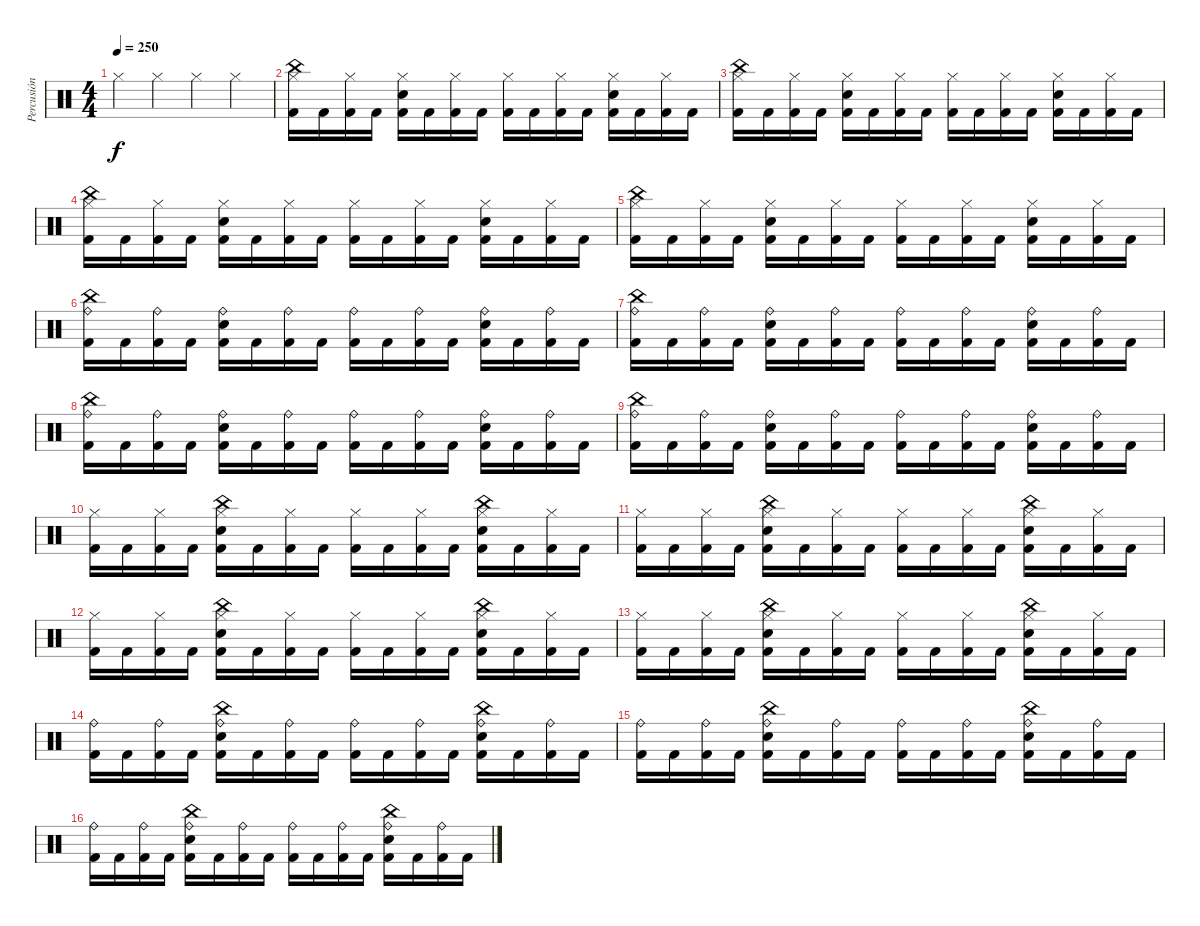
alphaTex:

\track ("Percusión" "Percusión") {instrument percussion}
\staff {score}
\articulation defaults
\ts (4 4)
\tempo 250
\clef neutral
\ks c "Hi-Hat (closed)".4{dy f} "Hi-Hat (closed)".4 "Hi-Hat (closed)".4 "Hi-Hat (closed)".4
|
("Hi-Hat (closed)" "China (hit)" "Kick (hit) 2").16 "Kick (hit) 2".16 ("Hi-Hat (closed)" "Kick (hit) 2").16 "Kick (hit) 2".16 ("Hi-Hat (closed)" "Electric Snare (hit)" "Kick (hit) 2").16 "Kick (hit) 2".16 ("Hi-Hat (closed)" "Kick (hit) 2").16 "Kick (hit) 2".16 ("Hi-Hat (closed)" "Kick (hit) 2").16 "Kick (hit) 2".16 ("Hi-Hat (closed)" "Kick (hit) 2").16 "Kick (hit) 2".16 ("Hi-Hat (closed)" "Electric Snare (hit)" "Kick (hit) 2").16 "Kick (hit) 2".16 ("Hi-Hat (closed)" "Kick (hit) 2").16 "Kick (hit) 2".16 |
("Hi-Hat (closed)" "China (hit)" "Kick (hit) 2").16 "Kick (hit) 2".16 ("Hi-Hat (closed)" "Kick (hit) 2").16 "Kick (hit) 2".16 ("Hi-Hat (closed)" "Electric Snare (hit)" "Kick (hit) 2").16 "Kick (hit) 2".16 ("Hi-Hat (closed)" "Kick (hit) 2").16 "Kick (hit) 2".16 ("Hi-Hat (closed)" "Kick (hit) 2").16 "Kick (hit) 2".16 ("Hi-Hat (closed)" "Kick (hit) 2").16 "Kick (hit) 2".16 ("Hi-Hat (closed)" "Electric Snare (hit)" "Kick (hit) 2").16 "Kick (hit) 2".16 ("Hi-Hat (closed)" "Kick (hit) 2").16 "Kick (hit) 2".16 |
("Hi-Hat (closed)" "China (hit)" "Kick (hit) 2").16 "Kick (hit) 2".16 ("Hi-Hat (closed)" "Kick (hit) 2").16 "Kick (hit) 2".16 ("Hi-Hat (closed)" "Electric Snare (hit)" "Kick (hit) 2").16 "Kick (hit) 2".16 ("Hi-Hat (closed)" "Kick (hit) 2").16 "Kick (hit) 2".16 ("Hi-Hat (closed)" "Kick (hit) 2").16 "Kick (hit) 2".16 ("Hi-Hat (closed)" "Kick (hit) 2").16 "Kick (hit) 2".16 ("Hi-Hat (closed)" "Electric Snare (hit)" "Kick (hit) 2").16 "Kick (hit) 2".16 ("Hi-Hat (closed)" "Kick (hit) 2").16 "Kick (hit) 2".16 |
("Hi-Hat (closed)" "China (hit)" "Kick (hit) 2").16 "Kick (hit) 2".16 ("Hi-Hat (closed)" "Kick (hit) 2").16 "Kick (hit) 2".16 ("Hi-Hat (closed)" "Electric Snare (hit)" "Kick (hit) 2").16 "Kick (hit) 2".16 ("Hi-Hat (closed)" "Kick (hit) 2").16 "Kick (hit) 2".16 ("Hi-Hat (closed)" "Kick (hit) 2").16 "Kick (hit) 2".16 ("Hi-Hat (closed)" "Kick (hit) 2").16 "Kick (hit) 2".16 ("Hi-Hat (closed)" "Electric Snare (hit)" "Kick (hit) 2").16 "Kick (hit) 2".16 ("Hi-Hat (closed)" "Kick (hit) 2").16 "Kick (hit) 2".16 |
("Ride (bell)" "China (hit)" "Kick (hit) 2").16 "Kick (hit) 2".16 ("Ride (bell)" "Kick (hit) 2").16 "Kick (hit) 2".16 ("Ride (bell)" "Electric Snare (hit)" "Kick (hit) 2").16 "Kick (hit) 2".16 ("Ride (bell)" "Kick (hit) 2").16 "Kick (hit) 2".16 ("Ride (bell)" "Kick (hit) 2").16 "Kick (hit) 2".16 ("Ride (bell)" "Kick (hit) 2").16 "Kick (hit) 2".16 ("Ride (bell)" "Electric Snare (hit)" "Kick (hit) 2").16 "Kick (hit) 2".16 ("Ride (bell)" "Kick (hit) 2").16 "Kick (hit) 2".16 |
("Ride (bell)" "Kick (hit) 2" "China (hit)").16 "Kick (hit) 2".16 ("Ride (bell)" "Kick (hit) 2").16 "Kick (hit) 2".16 ("Ride (bell)" "Electric Snare (hit)" "Kick (hit) 2").16 "Kick (hit) 2".16 ("Ride (bell)" "Kick (hit) 2").16 "Kick (hit) 2".16 ("Ride (bell)" "Kick (hit) 2").16 "Kick (hit) 2".16 ("Ride (bell)" "Kick (hit) 2").16 "Kick (hit) 2".16 ("Ride (bell)" "Electric Snare (hit)" "Kick (hit) 2").16 "Kick (hit) 2".16 ("Ride (bell)" "Kick (hit) 2").16 "Kick (hit) 2".16 |
("Ride (bell)" "Kick (hit) 2" "China (hit)").16 "Kick (hit) 2".16 ("Ride (bell)" "Kick (hit) 2").16 "Kick (hit) 2".16 ("Ride (bell)" "Electric Snare (hit)" "Kick (hit) 2").16 "Kick (hit) 2".16 ("Ride (bell)" "Kick (hit) 2").16 "Kick (hit) 2".16 ("Ride (bell)" "Kick (hit) 2").16 "Kick (hit) 2".16 ("Ride (bell)" "Kick (hit) 2").16 "Kick (hit) 2".16 ("Ride (bell)" "Electric Snare (hit)" "Kick (hit) 2").16 "Kick (hit) 2".16 ("Ride (bell)" "Kick (hit) 2").16 "Kick (hit) 2".16 |
("Ride (bell)" "Kick (hit) 2" "China (hit)").16 "Kick (hit) 2".16 ("Ride (bell)" "Kick (hit) 2").16 "Kick (hit) 2".16 ("Ride (bell)" "Electric Snare (hit)" "Kick (hit) 2").16 "Kick (hit) 2".16 ("Ride (bell)" "Kick (hit) 2").16 "Kick (hit) 2".16 ("Ride (bell)" "Kick (hit) 2").16 "Kick (hit) 2".16 ("Ride (bell)" "Kick (hit) 2").16 "Kick (hit) 2".16 ("Ride (bell)" "Electric Snare (hit)" "Kick (hit) 2").16 "Kick (hit) 2".16 ("Ride (bell)" "Kick (hit) 2").16 "Kick (hit) 2".16 |
("Hi-Hat (closed)" "Kick (hit) 2").16 "Kick (hit) 2".16 ("Hi-Hat (closed)" "Kick (hit) 2").16 "Kick (hit) 2".16 ("Hi-Hat (closed)" "Electric Snare (hit)" "Kick (hit) 2" "China (hit)").16 "Kick (hit) 2".16 ("Hi-Hat (closed)" "Kick (hit) 2").16 "Kick (hit) 2".16 ("Hi-Hat (closed)" "Kick (hit) 2").16 "Kick (hit) 2".16 ("Hi-Hat (closed)" "Kick (hit) 2").16 "Kick (hit) 2".16 ("Hi-Hat (closed)" "Electric Snare (hit)" "Kick (hit) 2" "China (hit)").16 "Kick (hit) 2".16 ("Hi-Hat (closed)" "Kick (hit) 2").16 "Kick (hit) 2".16 |
("Hi-Hat (closed)" "Kick (hit) 2").16 "Kick (hit) 2".16 ("Hi-Hat (closed)" "Kick (hit) 2").16 "Kick (hit) 2".16 ("Hi-Hat (closed)" "Electric Snare (hit)" "Kick (hit) 2" "China (hit)").16 "Kick (hit) 2".16 ("Hi-Hat (closed)" "Kick (hit) 2").16 "Kick (hit) 2".16 ("Hi-Hat (closed)" "Kick (hit) 2").16 "Kick (hit) 2".16 ("Hi-Hat (closed)" "Kick (hit) 2").16 "Kick (hit) 2".16 ("Hi-Hat (closed)" "Electric Snare (hit)" "Kick (hit) 2" "China (hit)").16 "Kick (hit) 2".16 ("Hi-Hat (closed)" "Kick (hit) 2").16 "Kick (hit) 2".16 |
("Hi-Hat (closed)" "Kick (hit) 2").16 "Kick (hit) 2".16 ("Hi-Hat (closed)" "Kick (hit) 2").16 "Kick (hit) 2".16 ("Hi-Hat (closed)" "Electric Snare (hit)" "Kick (hit) 2" "China (hit)").16 "Kick (hit) 2".16 ("Hi-Hat (closed)" "Kick (hit) 2").16 "Kick (hit) 2".16 ("Hi-Hat (closed)" "Kick (hit) 2").16 "Kick (hit) 2".16 ("Hi-Hat (closed)" "Kick (hit) 2").16 "Kick (hit) 2".16 ("Hi-Hat (closed)" "Electric Snare (hit)" "Kick (hit) 2" "China (hit)").16 "Kick (hit) 2".16 ("Hi-Hat (closed)" "Kick (hit) 2").16 "Kick (hit) 2".16 |
("Hi-Hat (closed)" "Kick (hit) 2").16 "Kick (hit) 2".16 ("Hi-Hat (closed)" "Kick (hit) 2").16 "Kick (hit) 2".16 ("Hi-Hat (closed)" "Electric Snare (hit)" "Kick (hit) 2" "China (hit)").16 "Kick (hit) 2".16 ("Hi-Hat (closed)" "Kick (hit) 2").16 "Kick (hit) 2".16 ("Hi-Hat (closed)" "Kick (hit) 2").16 "Kick (hit) 2".16 ("Hi-Hat (closed)" "Kick (hit) 2").16 "Kick (hit) 2".16 ("Hi-Hat (closed)" "Electric Snare (hit)" "Kick (hit) 2" "China (hit)").16 "Kick (hit) 2".16 ("Hi-Hat (closed)" "Kick (hit) 2").16 "Kick (hit) 2".16 |
("Ride (bell)" "Kick (hit) 2").16 "Kick (hit) 2".16 ("Ride (bell)" "Kick (hit) 2").16 "Kick (hit) 2".16 ("Ride (bell)" "Electric Snare (hit)" "Kick (hit) 2" "China (hit)").16 "Kick (hit) 2".16 ("Ride (bell)" "Kick (hit) 2").16 "Kick (hit) 2".16 ("Ride (bell)" "Kick (hit) 2").16 "Kick (hit) 2".16 ("Ride (bell)" "Kick (hit) 2").16 "Kick (hit) 2".16 ("Ride (bell)" "Electric Snare (hit)" "Kick (hit) 2" "China (hit)").16 "Kick (hit) 2".16 ("Ride (bell)" "Kick (hit) 2").16 "Kick (hit) 2".16 |
("Ride (bell)" "Kick (hit) 2").16 "Kick (hit) 2".16 ("Ride (bell)" "Kick (hit) 2").16 "Kick (hit) 2".16 ("Ride (bell)" "Electric Snare (hit)" "Kick (hit) 2" "China (hit)").16 "Kick (hit) 2".16 ("Ride (bell)" "Kick (hit) 2").16 "Kick (hit) 2".16 ("Ride (bell)" "Kick (hit) 2").16 "Kick (hit) 2".16 ("Ride (bell)" "Kick (hit) 2").16 "Kick (hit) 2".16 ("Ride (bell)" "Electric Snare (hit)" "Kick (hit) 2" "China (hit)").16 "Kick (hit) 2".16 ("Ride (bell)" "Kick (hit) 2").16 "Kick (hit) 2".16 |
("Ride (bell)" "Kick (hit) 2").16 "Kick (hit) 2".16 ("Ride (bell)" "Kick (hit) 2").16 "Kick (hit) 2".16 ("Ride (bell)" "Electric Snare (hit)" "Kick (hit) 2" "China (hit)").16 "Kick (hit) 2".16 ("Ride (bell)" "Kick (hit) 2").16 "Kick (hit) 2".16 ("Ride (bell)" "Kick (hit) 2").16 "Kick (hit) 2".16 ("Ride (bell)" "Kick (hit) 2").16 "Kick (hit) 2".16 ("Ride (bell)" "Electric Snare (hit)" "Kick (hit) 2" "China (hit)").16 "Kick (hit) 2".16 ("Ride (bell)" "Kick (hit) 2").16 "Kick (hit) 2".16
